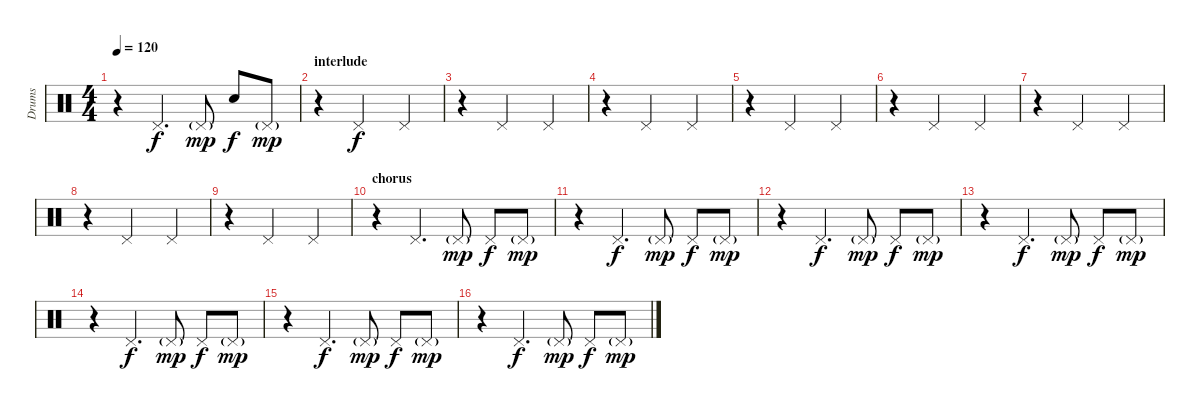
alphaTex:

\track ("Drums" "Drums") {instrument percussion}
\staff {score}
\articulation defaults
\ts (4 4)
\tempo 120
\clef neutral
\ks c
r.4{dy mp} "Pedal Hi-Hat (hit)".4{d dy f} "Pedal Hi-Hat (hit)"{g}.8{dy mp} "Electric Snare (hit)".8{dy f} "Pedal Hi-Hat (hit)"{g}.8{dy mp} |
\section ("" "interlude")
r.4 "Pedal Hi-Hat (hit)".2{dy f} "Pedal Hi-Hat (hit)".4 |
r.4 "Pedal Hi-Hat (hit)".2 "Pedal Hi-Hat (hit)".4 |
r.4 "Pedal Hi-Hat (hit)".2 "Pedal Hi-Hat (hit)".4 |
r.4 "Pedal Hi-Hat (hit)".2 "Pedal Hi-Hat (hit)".4 |
r.4 "Pedal Hi-Hat (hit)".2 "Pedal Hi-Hat (hit)".4 |
r.4 "Pedal Hi-Hat (hit)".2 "Pedal Hi-Hat (hit)".4 |
r.4 "Pedal Hi-Hat (hit)".2 "Pedal Hi-Hat (hit)".4 |
r.4 "Pedal Hi-Hat (hit)".2 "Pedal Hi-Hat (hit)".4 |
\section ("" "chorus")
r.4 "Pedal Hi-Hat (hit)".4{d} "Pedal Hi-Hat (hit)"{g}.8{dy mp} "Pedal Hi-Hat (hit)".8{dy f} "Pedal Hi-Hat (hit)"{g}.8{dy mp} |
r.4 "Pedal Hi-Hat (hit)".4{d dy f} "Pedal Hi-Hat (hit)"{g}.8{dy mp} "Pedal Hi-Hat (hit)".8{dy f} "Pedal Hi-Hat (hit)"{g}.8{dy mp} |
r.4 "Pedal Hi-Hat (hit)".4{d dy f} "Pedal Hi-Hat (hit)"{g}.8{dy mp} "Pedal Hi-Hat (hit)".8{dy f} "Pedal Hi-Hat (hit)"{g}.8{dy mp} |
r.4 "Pedal Hi-Hat (hit)".4{d dy f} "Pedal Hi-Hat (hit)"{g}.8{dy mp} "Pedal Hi-Hat (hit)".8{dy f} "Pedal Hi-Hat (hit)"{g}.8{dy mp} |
r.4 "Pedal Hi-Hat (hit)".4{d dy f} "Pedal Hi-Hat (hit)"{g}.8{dy mp} "Pedal Hi-Hat (hit)".8{dy f} "Pedal Hi-Hat (hit)"{g}.8{dy mp} |
r.4 "Pedal Hi-Hat (hit)".4{d dy f} "Pedal Hi-Hat (hit)"{g}.8{dy mp} "Pedal Hi-Hat (hit)".8{dy f} "Pedal Hi-Hat (hit)"{g}.8{dy mp} |
r.4 "Pedal Hi-Hat (hit)".4{d dy f} "Pedal Hi-Hat (hit)"{g}.8{dy mp} "Pedal Hi-Hat (hit)".8{dy f} "Pedal Hi-Hat (hit)"{g}.8{dy mp}
